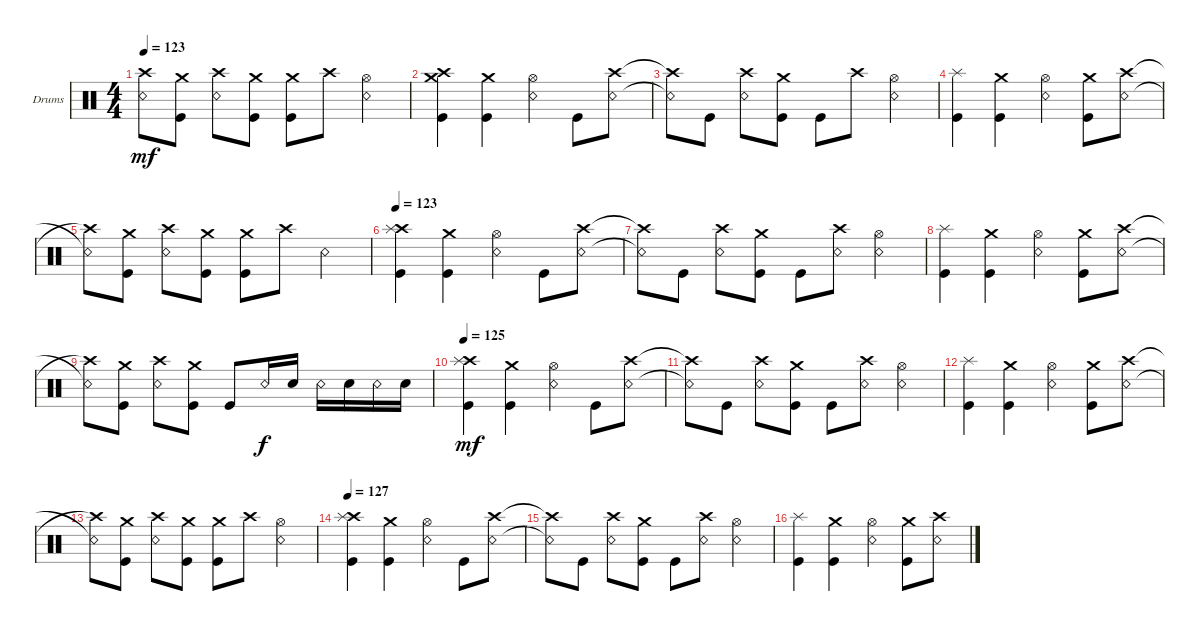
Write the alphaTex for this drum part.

\defaultSystemsLayout 4
\bracketExtendMode groupsimilarinstruments
\firstSystemTrackNameOrientation horizontal
\otherSystemsTrackNameOrientation horizontal
\track ("Drumkit" "Drums") {instrument percussion}
\staff {score}
\articulation defaults
\ts (4 4)
\tempo 123
\clef neutral
\ks c
("Crash high (hit)"{t} "Snare (rim shot)"{t}).8{dy mf} ("Kick (hit)" "Crash medium (hit)").8 ("Snare (rim shot)" "Crash high (hit)").8 ("Kick (hit)" "Crash medium (hit)").8 ("Kick (hit)" "Crash medium (hit)").8 "Crash high (hit)".8 ("Snare (rim shot)" "Hi-Hat (open)").4 |
("Kick (hit)" "Crash medium (hit)" "Crash high (hit)").4 ("Crash medium (hit)" "Kick (hit)").4 ("Snare (rim shot)" "Hi-Hat (open)").4 "Kick (hit)".8 ("Crash high (hit)" "Snare (rim shot)").8 |
("Crash high (hit)"{t} "Snare (rim shot)"{t}).8 "Kick (hit)".8 ("Crash high (hit)" "Snare (rim shot)").8 ("Kick (hit)" "Crash medium (hit)").8 "Kick (hit)".8 "Crash high (hit)".8 ("Snare (rim shot)" "Hi-Hat (open)").4 |
("Kick (hit)" "Splash (hit)").4 ("Crash medium (hit)" "Kick (hit)").4 ("Snare (rim shot)" "Hi-Hat (open)").4 ("Kick (hit)" "Crash medium (hit)").8 ("Snare (rim shot)" "Crash high (hit)").8 |
("Crash high (hit)"{t} "Snare (rim shot)"{t}).8 ("Kick (hit)" "Crash medium (hit)").8 ("Snare (rim shot)" "Crash high (hit)").8 ("Kick (hit)" "Crash medium (hit)").8 ("Kick (hit)" "Crash medium (hit)").8 "Crash high (hit)".8 "Snare (rim shot)".4 |
\tempo 123
("Kick (hit)" "Crash high (hit)" "Splash (hit)").4 ("Crash medium (hit)" "Kick (hit)").4 ("Snare (rim shot)" "Hi-Hat (open)").4 "Kick (hit)".8 ("Crash high (hit)" "Snare (rim shot)").8 |
("Crash high (hit)"{t} "Snare (rim shot)"{t}).8 "Kick (hit)".8 ("Crash high (hit)" "Snare (rim shot)").8 ("Kick (hit)" "Crash medium (hit)").8 "Kick (hit)".8 ("Crash high (hit)" "Snare (rim shot)").8 ("Snare (rim shot)" "Hi-Hat (open)").4 |
("Kick (hit)" "Splash (hit)").4 ("Crash medium (hit)" "Kick (hit)").4 ("Snare (rim shot)" "Hi-Hat (open)").4 ("Kick (hit)" "Crash medium (hit)").8 ("Snare (rim shot)" "Crash high (hit)").8 |
("Crash high (hit)"{t} "Snare (rim shot)"{t}).8 ("Kick (hit)" "Crash medium (hit)").8 ("Snare (rim shot)" "Crash high (hit)").8 ("Kick (hit)" "Crash medium (hit)").8 "Kick (hit)".8 "Snare (rim shot)".16{dy f} "Snare (hit) 2".16 "Snare (rim shot)".16 "Snare (hit) 2".16 "Snare (rim shot)".16 "Snare (hit) 2".16 |
\tempo 125
("Kick (hit)" "Crash high (hit)" "Splash (hit)").4{dy mf} ("Crash medium (hit)" "Kick (hit)").4 ("Snare (rim shot)" "Hi-Hat (open)").4 "Kick (hit)".8 ("Crash high (hit)" "Snare (rim shot)").8 |
("Crash high (hit)"{t} "Snare (rim shot)"{t}).8 "Kick (hit)".8 ("Crash high (hit)" "Snare (rim shot)").8 ("Kick (hit)" "Crash medium (hit)").8 "Kick (hit)".8 ("Crash high (hit)" "Snare (rim shot)").8 ("Snare (rim shot)" "Hi-Hat (open)").4 |
("Kick (hit)" "Splash (hit)").4 ("Crash medium (hit)" "Kick (hit)").4 ("Snare (rim shot)" "Hi-Hat (open)").4 ("Kick (hit)" "Crash medium (hit)").8 ("Snare (rim shot)" "Crash high (hit)").8 |
("Crash high (hit)"{t} "Snare (rim shot)"{t}).8 ("Kick (hit)" "Crash medium (hit)").8 ("Snare (rim shot)" "Crash high (hit)").8 ("Kick (hit)" "Crash medium (hit)").8 ("Kick (hit)" "Crash medium (hit)").8 "Crash high (hit)".8 ("Snare (rim shot)" "Hi-Hat (open)").4 |
\tempo 127
("Kick (hit)" "Crash high (hit)" "Splash (hit)").4 ("Crash medium (hit)" "Kick (hit)").4 ("Snare (rim shot)" "Hi-Hat (open)").4 "Kick (hit)".8 ("Crash high (hit)" "Snare (rim shot)").8 |
("Crash high (hit)"{t} "Snare (rim shot)"{t}).8 "Kick (hit)".8 ("Crash high (hit)" "Snare (rim shot)").8 ("Kick (hit)" "Crash medium (hit)").8 "Kick (hit)".8 ("Crash high (hit)" "Snare (rim shot)").8 ("Snare (rim shot)" "Hi-Hat (open)").4 |
("Kick (hit)" "Splash (hit)").4 ("Crash medium (hit)" "Kick (hit)").4 ("Snare (rim shot)" "Hi-Hat (open)").4 ("Kick (hit)" "Crash medium (hit)").8 ("Snare (rim shot)" "Crash high (hit)").8
